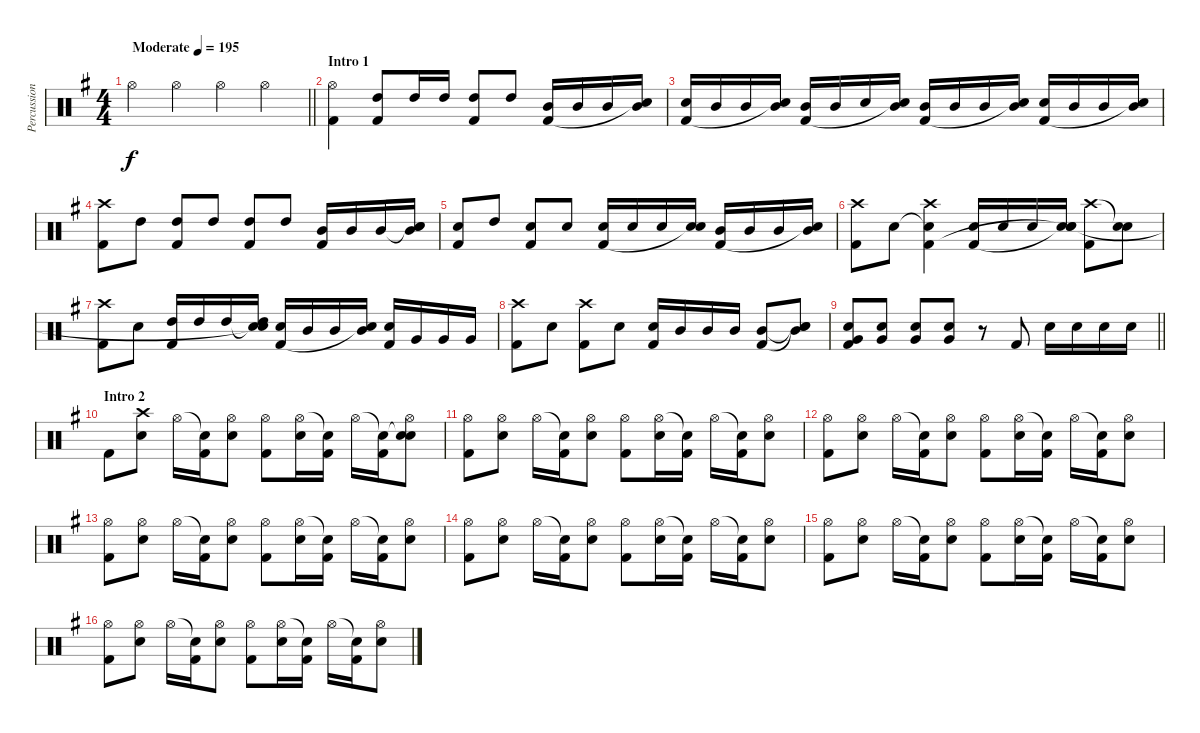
\track ("Percussion" "Percussion") {instrument percussion}
\staff {score}
\articulation defaults
\ts (4 4)
\tempo (195 "Moderate")
\clef neutral
\barLineRight lightlight
\ks g "Hi-Hat (open)".4{dy f} "Hi-Hat (open)".4 "Hi-Hat (open)".4 "Hi-Hat (open)".4
|
\section ("" "Intro 1")
("Hi-Hat (open)" "Kick (hit) 2").4 ("High Tom (hit)" "Kick (hit) 2").8 "High Tom (hit)".16 "High Tom (hit)".16 ("High Tom (hit)" "Kick (hit) 2").8 "High Tom (hit)".8 ("Mid Tom (hit)" "Kick (hit) 2").16 "Mid Tom (hit)".16 "Mid Tom (hit)".16 ("Mid Tom (hit)" "Snare (hit)"{t}).16 |
("Electric Snare (hit)" "Kick (hit) 2").16 "Mid Tom (hit)".16 "Mid Tom (hit)".16 ("Mid Tom (hit)" "Snare (hit)"{t}).16 ("Mid Tom (hit)" "Kick (hit) 2").16 "Mid Tom (hit)".16 "Electric Snare (hit)".16 ("Mid Tom (hit)" "Snare (hit)"{t}).16 ("Mid Tom (hit)" "Kick (hit) 2").16 "Mid Tom (hit)".16 "Mid Tom (hit)".16 ("Mid Tom (hit)" "Snare (hit)"{t}).16 ("Electric Snare (hit)" "Kick (hit) 2").16 "Mid Tom (hit)".16 "Mid Tom (hit)".16 ("Mid Tom (hit)" "Snare (hit)"{t}).16 |
("Crash high (hit)" "Kick (hit) 2").8 "High Tom (hit)".8 ("High Tom (hit)" "Kick (hit) 2").8 "High Tom (hit)".8 ("High Tom (hit)" "Kick (hit) 2").8 "High Tom (hit)".8 ("Mid Tom (hit)" "Kick (hit) 2").16 "Mid Tom (hit)".16 "Mid Tom (hit)".16 ("Snare (hit)"{t} "Mid Tom (hit)" "Snare (hit)").16 |
("Electric Snare (hit)" "Kick (hit) 2").8 "High Tom (hit)".8 ("Electric Snare (hit)" "Kick (hit) 2").8 "Electric Snare (hit)".8 ("Electric Snare (hit)" "Kick (hit) 2").16 "Electric Snare (hit)".16 "Electric Snare (hit)".16 ("Electric Snare (hit)" "Snare (hit)"{t}).16 ("Mid Tom (hit)" "Kick (hit) 2").16 "Mid Tom (hit)".16 "Mid Tom (hit)".16 ("Mid Tom (hit)" "Snare (hit)"{t}).16 |
("Crash high (hit)" "Kick (hit) 2").8 "Electric Snare (hit)".8 ("Snare (hit)"{t} "Crash high (hit)" "Kick (hit) 2").4 ("Electric Snare (hit)" "Kick (hit) 2").16 "Electric Snare (hit)".16 "Electric Snare (hit)".16 ("Electric Snare (hit)" "Snare (hit)"{t} "Snare (hit)"{t}).16 ("Crash high (hit)" "Kick (hit) 2").8 ("Snare (hit)"{t} "Electric Snare (hit)").8 |
("Crash high (hit)" "Kick (hit) 2").8 "Electric Snare (hit)".8 ("High Tom (hit)" "Kick (hit) 2").16 "High Tom (hit)".16 "High Tom (hit)".16 ("Snare (hit)"{t} "High Tom (hit)" "Snare (hit)"{t}).16 ("Electric Snare (hit)" "Kick (hit) 2").16 "Mid Tom (hit)".16 "Mid Tom (hit)".16 ("Mid Tom (hit)" "Snare (hit)"{t}).16 ("Electric Snare (hit)" "Kick (hit) 2").16 "Very Low Tom (hit)".16 "Very Low Tom (hit)".16 "Very Low Tom (hit)".16 |
("Crash high (hit)" "Kick (hit) 2").8 "Electric Snare (hit)".8 ("Crash high (hit)" "Kick (hit) 2").8 "Electric Snare (hit)".8 ("Electric Snare (hit)" "Kick (hit) 2").16 "Mid Tom (hit)".16 "Mid Tom (hit)".16 "Mid Tom (hit)".16 ("Mid Tom (hit)" "Kick (hit) 2").8 ("Snare (hit)"{t} "Snare (hit)"{t} "Mid Tom (hit)").8 |
\barLineRight lightlight
("Electric Snare (hit)" "Very Low Tom (hit)" "Kick (hit) 2").8 ("Electric Snare (hit)" "Very Low Tom (hit)").8 ("Electric Snare (hit)" "Very Low Tom (hit)").8 ("Electric Snare (hit)" "Very Low Tom (hit)").8 r.8 "Kick (hit) 2".8 "Electric Snare (hit)".16 "Electric Snare (hit)".16 "Electric Snare (hit)".16 "Electric Snare (hit)".16 |
\section ("" "Intro 2")
"Kick (hit) 2".8 ("Crash high (hit)" "Electric Snare (hit)").8 "Hi-Hat (open)".16 ("Snare (hit)"{t} "Kick (hit) 2").16 ("Hi-Hat (open)" "Electric Snare (hit)").8 ("Hi-Hat (open)" "Kick (hit) 2").8 ("Hi-Hat (open)" "Electric Snare (hit)").16 ("Snare (hit)"{t} "Kick (hit) 2").16 "Hi-Hat (open)".16 ("Snare (hit)"{t} "Kick (hit) 2").16 ("Snare (hit)"{t} "Hi-Hat (open)" "Electric Snare (hit)").8 |
("Hi-Hat (open)" "Kick (hit) 2").8 ("Hi-Hat (open)" "Electric Snare (hit)").8 "Hi-Hat (open)".16 ("Snare (hit)"{t} "Kick (hit) 2").16 ("Hi-Hat (open)" "Electric Snare (hit)").8 ("Hi-Hat (open)" "Kick (hit) 2").8 ("Hi-Hat (open)" "Electric Snare (hit)").16 ("Snare (hit)"{t} "Kick (hit) 2").16 "Hi-Hat (open)".16 ("Snare (hit)"{t} "Kick (hit) 2").16 ("Hi-Hat (open)" "Electric Snare (hit)").8 |
("Hi-Hat (open)" "Kick (hit) 2").8 ("Hi-Hat (open)" "Electric Snare (hit)").8 "Hi-Hat (open)".16 ("Snare (hit)"{t} "Kick (hit) 2").16 ("Hi-Hat (open)" "Electric Snare (hit)").8 ("Hi-Hat (open)" "Kick (hit) 2").8 ("Hi-Hat (open)" "Electric Snare (hit)").16 ("Snare (hit)"{t} "Kick (hit) 2").16 "Hi-Hat (open)".16 ("Snare (hit)"{t} "Kick (hit) 2").16 ("Hi-Hat (open)" "Electric Snare (hit)").8 |
("Hi-Hat (open)" "Kick (hit) 2").8 ("Hi-Hat (open)" "Electric Snare (hit)").8 "Hi-Hat (open)".16 ("Snare (hit)"{t} "Kick (hit) 2").16 ("Hi-Hat (open)" "Electric Snare (hit)").8 ("Hi-Hat (open)" "Kick (hit) 2").8 ("Hi-Hat (open)" "Electric Snare (hit)").16 ("Snare (hit)"{t} "Kick (hit) 2").16 "Hi-Hat (open)".16 ("Snare (hit)"{t} "Kick (hit) 2").16 ("Hi-Hat (open)" "Electric Snare (hit)").8 |
("Hi-Hat (open)" "Kick (hit) 2").8 ("Hi-Hat (open)" "Electric Snare (hit)").8 "Hi-Hat (open)".16 ("Snare (hit)"{t} "Kick (hit) 2").16 ("Hi-Hat (open)" "Electric Snare (hit)").8 ("Hi-Hat (open)" "Kick (hit) 2").8 ("Hi-Hat (open)" "Electric Snare (hit)").16 ("Snare (hit)"{t} "Kick (hit) 2").16 "Hi-Hat (open)".16 ("Snare (hit)"{t} "Kick (hit) 2").16 ("Hi-Hat (open)" "Electric Snare (hit)").8 |
("Hi-Hat (open)" "Kick (hit) 2").8 ("Hi-Hat (open)" "Electric Snare (hit)").8 "Hi-Hat (open)".16 ("Snare (hit)"{t} "Kick (hit) 2").16 ("Hi-Hat (open)" "Electric Snare (hit)").8 ("Hi-Hat (open)" "Kick (hit) 2").8 ("Hi-Hat (open)" "Electric Snare (hit)").16 ("Snare (hit)"{t} "Kick (hit) 2").16 "Hi-Hat (open)".16 ("Snare (hit)"{t} "Kick (hit) 2").16 ("Hi-Hat (open)" "Electric Snare (hit)").8 |
("Hi-Hat (open)" "Kick (hit) 2").8 ("Hi-Hat (open)" "Electric Snare (hit)").8 "Hi-Hat (open)".16 ("Snare (hit)"{t} "Kick (hit) 2").16 ("Hi-Hat (open)" "Electric Snare (hit)").8 ("Hi-Hat (open)" "Kick (hit) 2").8 ("Hi-Hat (open)" "Electric Snare (hit)").16 ("Snare (hit)"{t} "Kick (hit) 2").16 "Hi-Hat (open)".16 ("Snare (hit)"{t} "Kick (hit) 2").16 ("Hi-Hat (open)" "Electric Snare (hit)").8
